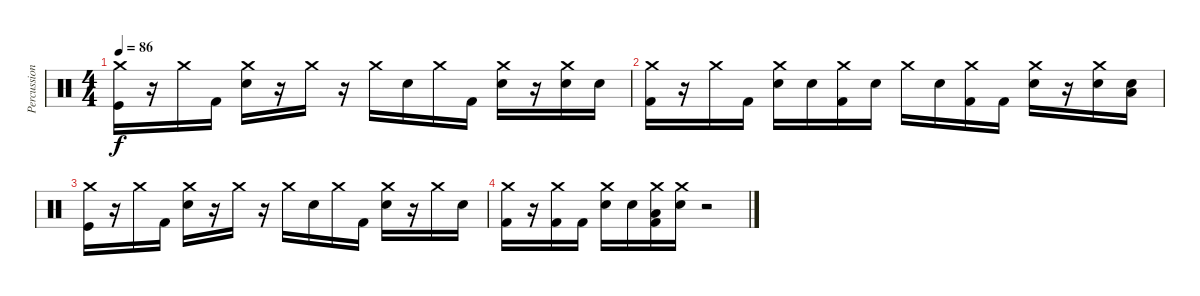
\track ("Percussion" "Percussion") {instrument percussion}
\staff {score}
\articulation defaults
\ts (4 4)
\tempo 86
\clef neutral
\ks c
("Crash medium (hit)" "Kick (hit)").16{dy f} r.16 "Crash medium (hit)".16 "Kick (hit) 2".16 ("Crash medium (hit)" "Electric Snare (hit)").16 r.16 "Crash medium (hit)".16 r.16 "Crash medium (hit)".16 "Electric Snare (hit)".16 "Crash medium (hit)".16 "Kick (hit) 2".16 ("Crash medium (hit)" "Electric Snare (hit)").16 r.16 ("Crash medium (hit)" "Electric Snare (hit)").16 "Electric Snare (hit)".16 |
("Crash medium (hit)" "Kick (hit) 2").16 r.16 "Crash medium (hit)".16 "Kick (hit) 2".16 ("Crash medium (hit)" "Electric Snare (hit)").16 "Electric Snare (hit)".16 ("Crash medium (hit)" "Kick (hit) 2").16 "Electric Snare (hit)".16 "Crash medium (hit)".16 "Electric Snare (hit)".16 ("Crash medium (hit)" "Kick (hit) 2").16 "Kick (hit) 2".16 ("Crash medium (hit)" "Electric Snare (hit)").16 r.16 ("Crash medium (hit)" "Electric Snare (hit)").16 ("Electric Snare (hit)" "Low Floor Tom (hit)").16 |
("Crash medium (hit)" "Kick (hit)").16 r.16 "Crash medium (hit)".16 "Kick (hit) 2".16 ("Crash medium (hit)" "Electric Snare (hit)").16 r.16 "Crash medium (hit)".16 r.16 "Crash medium (hit)".16 "Electric Snare (hit)".16 "Crash medium (hit)".16 "Kick (hit) 2".16 ("Crash medium (hit)" "Electric Snare (hit)").16 r.16 "Crash medium (hit)".16 "Electric Snare (hit)".16 |
("Crash medium (hit)" "Kick (hit) 2").16 r.16 ("Crash medium (hit)" "Kick (hit) 2").16 "Kick (hit) 2".16 ("Crash medium (hit)" "Electric Snare (hit)").16 "Electric Snare (hit)".16 ("Crash medium (hit)" "Low Floor Tom (hit)" "Kick (hit) 2").16 ("Crash medium (hit)" "Electric Snare (hit)").16 r.2
